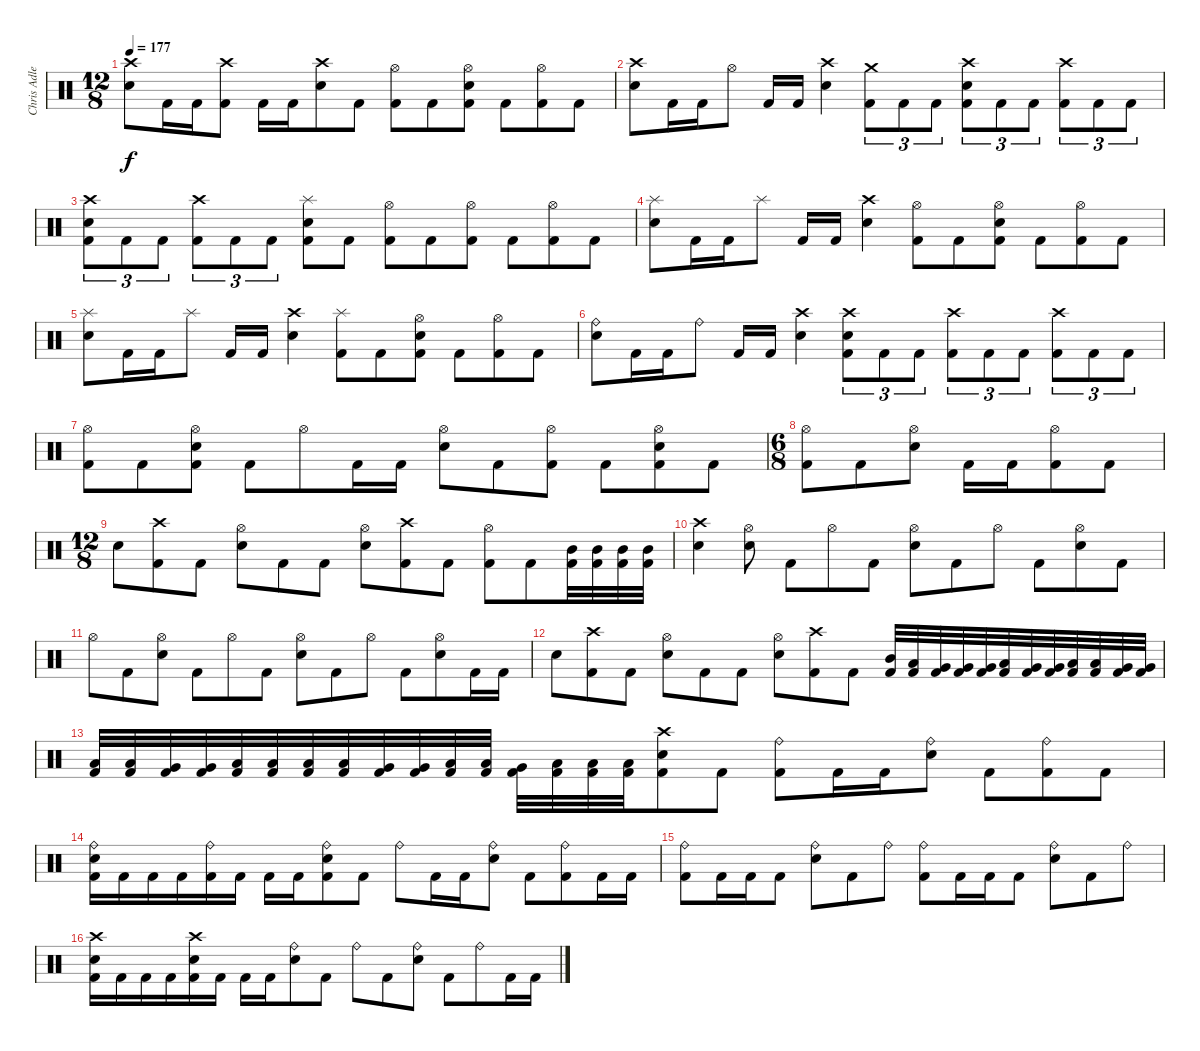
\track ("Chris Adler" "Chris Adle") {instrument percussion}
\staff {score}
\articulation defaults
\ts (12 8)
\tempo 177
\clef neutral
\ks c
("Crash high (hit)" "Snare (hit) 2").8{dy f} "Kick (hit) 2".16 "Kick (hit) 2".16 ("Crash high (hit)" "Kick (hit) 2").8 "Kick (hit) 2".16 "Kick (hit) 2".16 ("Crash high (hit)" "Snare (hit) 2").8 "Kick (hit) 2".8 ("Hi-Hat (open)" "Kick (hit) 2").8 "Kick (hit) 2".8 ("Hi-Hat (open)" "Snare (hit) 2" "Kick (hit) 2").8 "Kick (hit) 2".8 ("Hi-Hat (open)" "Kick (hit) 2").8 "Kick (hit) 2".8 |
("Crash high (hit)" "Snare (hit) 2").8 "Kick (hit) 2".16 "Kick (hit) 2".16 "Hi-Hat (open)".8 "Kick (hit) 2".16 "Kick (hit) 2".16 ("Crash high (hit)" "Electric Snare (hit)").4 ("Crash medium (hit)" "Kick (hit) 2").8{tu (3 2)} "Kick (hit) 2".8{tu (3 2)} "Kick (hit) 2".8{tu (3 2)} ("Crash high (hit)" "Snare (hit) 2" "Kick (hit) 2").8{tu (3 2)} "Kick (hit) 2".8{tu (3 2)} "Kick (hit) 2".8{tu (3 2)} ("Crash high (hit)" "Kick (hit) 2").8{tu (3 2)} "Kick (hit) 2".8{tu (3 2)} "Kick (hit) 2".8{tu (3 2)} |
("Snare (hit) 2" "Crash high (hit)" "Kick (hit) 2").8{tu (3 2)} "Kick (hit) 2".8{tu (3 2)} "Kick (hit) 2".8{tu (3 2)} ("Crash high (hit)" "Kick (hit) 2").8{tu (3 2)} "Kick (hit) 2".8{tu (3 2)} "Kick (hit) 2".8{tu (3 2)} ("Snare (hit) 2" "Splash (hit)" "Kick (hit) 2").8 "Kick (hit) 2".8 ("Hi-Hat (open)" "Kick (hit) 2").8 "Kick (hit) 2".8 ("Hi-Hat (open)" "Kick (hit) 2").8 "Kick (hit) 2".8 ("Hi-Hat (open)" "Kick (hit) 2").8 "Kick (hit) 2".8 |
("Splash (hit)" "Snare (hit) 2").8 "Kick (hit) 2".16 "Kick (hit) 2".16 "Splash (hit)".8 "Kick (hit) 2".16 "Kick (hit) 2".16 ("Crash high (hit)" "Snare (hit) 2").4 ("Hi-Hat (open)" "Kick (hit) 2").8 "Kick (hit) 2".8 ("Snare (hit) 2" "Hi-Hat (open)" "Kick (hit) 2").8 "Kick (hit) 2".8 ("Hi-Hat (open)" "Kick (hit) 2").8 "Kick (hit) 2".8 |
("Splash (hit)" "Snare (hit) 2").8 "Kick (hit) 2".16 "Kick (hit) 2".16 "Splash (hit)".8 "Kick (hit) 2".16 "Kick (hit) 2".16 ("Crash high (hit)" "Snare (hit) 2").4 ("Splash (hit)" "Kick (hit) 2").8 "Kick (hit) 2".8 ("Snare (hit) 2" "Hi-Hat (open)" "Kick (hit) 2").8 "Kick (hit) 2".8 ("Hi-Hat (open)" "Kick (hit) 2").8 "Kick (hit) 2".8 |
("Ride (bell)" "Snare (hit) 2").8 "Kick (hit) 2".16 "Kick (hit) 2".16 "Ride (bell)".8 "Kick (hit) 2".16 "Kick (hit) 2".16 ("Crash high (hit)" "Snare (hit) 2").4 ("Snare (hit) 2" "Crash high (hit)" "Kick (hit) 2").8{tu (3 2)} "Kick (hit) 2".8{tu (3 2)} "Kick (hit) 2".8{tu (3 2)} ("Crash high (hit)" "Kick (hit) 2").8{tu (3 2)} "Kick (hit) 2".8{tu (3 2)} "Kick (hit) 2".8{tu (3 2)} ("Crash high (hit)" "Kick (hit) 2").8{tu (3 2)} "Kick (hit) 2".8{tu (3 2)} "Kick (hit) 2".8{tu (3 2)} |
("Hi-Hat (open)" "Kick (hit) 2").8 "Kick (hit) 2".8 ("Snare (hit) 2" "Hi-Hat (open)" "Kick (hit) 2").8 "Kick (hit) 2".8 "Hi-Hat (open)".8 "Kick (hit) 2".16 "Kick (hit) 2".16 ("Hi-Hat (open)" "Snare (hit) 2").8 "Kick (hit) 2".8 ("Hi-Hat (open)" "Kick (hit) 2").8 "Kick (hit) 2".8 ("Snare (hit) 2" "Hi-Hat (open)" "Kick (hit) 2").8 "Kick (hit) 2".8 |
\ts (6 8)
("Hi-Hat (open)" "Kick (hit) 2").8 "Kick (hit) 2".8 ("Hi-Hat (open)" "Snare (hit) 2").8 "Kick (hit) 2".16 "Kick (hit) 2".16 ("Hi-Hat (open)" "Kick (hit) 2").8 "Kick (hit) 2".8 |
\ts (12 8)
"Snare (hit) 2".8 ("Kick (hit) 2" "Crash high (hit)").8 "Kick (hit) 2".8 ("Hi-Hat (open)" "Snare (hit) 2").8 "Kick (hit) 2".8 "Kick (hit) 2".8 ("Hi-Hat (open)" "Snare (hit) 2").8 ("Crash high (hit)" "Kick (hit) 2").8 "Kick (hit) 2".8 ("Hi-Hat (open)" "Kick (hit) 2").8 "Kick (hit) 2".8 ("Mid Tom (hit)" "Kick (hit) 2").32 ("Mid Tom (hit)" "Kick (hit) 2").32 ("Mid Tom (hit)" "Kick (hit) 2").32 ("Mid Tom (hit)" "Kick (hit) 2").32 |
("Crash high (hit)" "Electric Snare (hit)").4 ("Hi-Hat (open)" "Snare (hit) 2").8 "Kick (hit) 2".8 "Hi-Hat (open)".8 "Kick (hit) 2".8 ("Snare (hit) 2" "Hi-Hat (open)").8 "Kick (hit) 2".8 "Hi-Hat (open)".8 "Kick (hit) 2".8 ("Hi-Hat (open)" "Snare (hit) 2").8 "Kick (hit) 2".8 |
"Hi-Hat (open)".8 "Kick (hit) 2".8 ("Hi-Hat (open)" "Snare (hit) 2").8 "Kick (hit) 2".8 "Hi-Hat (open)".8 "Kick (hit) 2".8 ("Hi-Hat (open)" "Snare (hit) 2").8 "Kick (hit) 2".8 "Hi-Hat (open)".8 "Kick (hit) 2".8 ("Hi-Hat (open)" "Snare (hit) 2").8 "Kick (hit) 2".16 "Kick (hit) 2".16 |
"Snare (hit) 2".8 ("Kick (hit) 2" "Crash high (hit)").8 "Kick (hit) 2".8 ("Hi-Hat (open)" "Snare (hit) 2").8 "Kick (hit) 2".8 "Kick (hit) 2".8 ("Hi-Hat (open)" "Snare (hit) 2").8 ("Crash high (hit)" "Kick (hit) 2").8 "Kick (hit) 2".8 ("Mid Tom (hit)" "Kick (hit) 2").32 ("Low Tom (hit)" "Kick (hit) 2").32 ("Very Low Tom (hit)" "Kick (hit) 2").32 ("Very Low Tom (hit)" "Kick (hit) 2").32 ("Very Low Tom (hit)" "Kick (hit) 2").32 ("Low Floor Tom (hit)" "Kick (hit) 2").32 ("Very Low Tom (hit)" "Kick (hit) 2").32 ("Very Low Tom (hit)" "Kick (hit) 2").32 ("Low Floor Tom (hit)" "Kick (hit) 2").32 ("Low Tom (hit)" "Kick (hit) 2").32 ("Very Low Tom (hit)" "Kick (hit) 2").32 ("Very Low Tom (hit)" "Kick (hit) 2").32 |
("Low Floor Tom (hit)" "Kick (hit) 2").32 ("Low Tom (hit)" "Kick (hit) 2").32 ("Very Low Tom (hit)" "Kick (hit) 2").32 ("Very Low Tom (hit)" "Kick (hit) 2").32 ("Low Floor Tom (hit)" "Kick (hit) 2").32 ("Low Floor Tom (hit)" "Kick (hit) 2").32 ("Low Floor Tom (hit)" "Kick (hit) 2").32 ("Low Floor Tom (hit)" "Kick (hit) 2").32 ("Very Low Tom (hit)" "Kick (hit) 2").32 ("Very Low Tom (hit)" "Kick (hit) 2").32 ("Low Floor Tom (hit)" "Kick (hit) 2").32 ("Low Floor Tom (hit)" "Kick (hit) 2").32 ("Very Low Tom (hit)" "Kick (hit) 2").32 ("Low Floor Tom (hit)" "Kick (hit) 2").32 ("Low Floor Tom (hit)" "Kick (hit) 2").32 ("Low Tom (hit)" "Kick (hit) 2").32 ("Kick (hit) 2" "Crash high (hit)" "Snare (hit) 2").8 "Kick (hit) 2".8 ("Kick (hit) 2" "Ride (bell)").8 "Kick (hit) 2".16 "Kick (hit) 2".16 ("Ride (bell)" "Snare (hit) 2").8 "Kick (hit) 2".8 ("Kick (hit) 2" "Ride (bell)").8 "Kick (hit) 2".8 |
("Kick (hit) 2" "Ride (bell)" "Snare (hit) 2").16 "Kick (hit) 2".16 "Kick (hit) 2".16 "Kick (hit) 2".16 ("Ride (bell)" "Kick (hit) 2").16 "Kick (hit) 2".16 "Kick (hit) 2".16 "Kick (hit) 2".16 ("Ride (bell)" "Snare (hit) 2" "Kick (hit) 2").8 "Kick (hit) 2".8 "Ride (bell)".8 "Kick (hit) 2".16 "Kick (hit) 2".16 ("Ride (bell)" "Snare (hit) 2").8 "Kick (hit) 2".8 ("Ride (bell)" "Kick (hit) 2").8 "Kick (hit) 2".16 "Kick (hit) 2".16 |
("Ride (bell)" "Kick (hit) 2").8 "Kick (hit) 2".16 "Kick (hit) 2".16 "Kick (hit) 2".8 ("Ride (bell)" "Snare (hit) 2").8 "Kick (hit) 2".8 "Ride (bell)".8 ("Ride (bell)" "Kick (hit) 2").8 "Kick (hit) 2".16 "Kick (hit) 2".16 "Kick (hit) 2".8 ("Ride (bell)" "Snare (hit) 2").8 "Kick (hit) 2".8 "Ride (bell)".8 |
("Crash high (hit)" "Snare (hit) 2" "Kick (hit) 2").16 "Kick (hit) 2".16 "Kick (hit) 2".16 "Kick (hit) 2".16 ("Crash high (hit)" "Snare (hit) 2" "Kick (hit) 2").16 "Kick (hit) 2".16 "Kick (hit) 2".16 "Kick (hit) 2".16 ("Ride (bell)" "Snare (hit) 2").8 "Kick (hit) 2".8 "Ride (bell)".8 "Kick (hit) 2".8 ("Ride (bell)" "Snare (hit) 2").8 "Kick (hit) 2".8 "Ride (bell)".8 "Kick (hit) 2".16 "Kick (hit) 2".16
